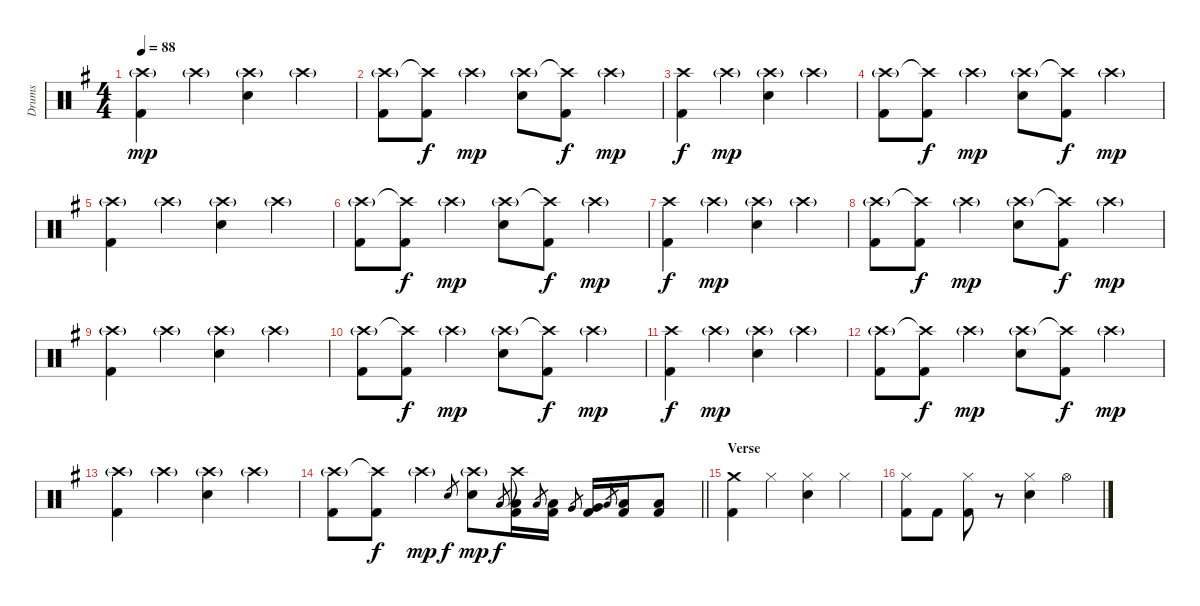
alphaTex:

\track ("Drums" "Drums") {instrument percussion}
\staff {score}
\articulation defaults
\ts (4 4)
\tempo 88
\clef neutral
\ks g
("Crash high (hit)"{g} "Kick (hit) 2").4{dy mp} "Crash high (hit)"{g}.4 ("Crash high (hit)"{g} "Electric Snare (hit)").4 "Crash high (hit)"{g}.4 |
("Crash high (hit)"{g} "Kick (hit) 2").8 ("Crash high (hit)"{t} "Kick (hit) 2").8{dy f} "Crash high (hit)"{g}.4{dy mp} ("Crash high (hit)"{g} "Electric Snare (hit)").8 ("Crash high (hit)"{t} "Kick (hit) 2").8{dy f} "Crash high (hit)"{g}.4{dy mp} |
("Crash high (hit)" "Kick (hit) 2").4{dy f} "Crash high (hit)"{g}.4{dy mp} ("Crash high (hit)"{g} "Electric Snare (hit)").4 "Crash high (hit)"{g}.4 |
("Crash high (hit)"{g} "Kick (hit) 2").8 ("Crash high (hit)"{t} "Kick (hit) 2").8{dy f} "Crash high (hit)"{g}.4{dy mp} ("Crash high (hit)"{g} "Electric Snare (hit)").8 ("Crash high (hit)"{t} "Kick (hit) 2").8{dy f} "Crash high (hit)"{g}.4{dy mp} |
("Crash high (hit)"{g} "Kick (hit) 2").4 "Crash high (hit)"{g}.4 ("Crash high (hit)"{g} "Electric Snare (hit)").4 "Crash high (hit)"{g}.4 |
("Crash high (hit)"{g} "Kick (hit) 2").8 ("Crash high (hit)"{t} "Kick (hit) 2").8{dy f} "Crash high (hit)"{g}.4{dy mp} ("Crash high (hit)"{g} "Electric Snare (hit)").8 ("Crash high (hit)"{t} "Kick (hit) 2").8{dy f} "Crash high (hit)"{g}.4{dy mp} |
("Crash high (hit)" "Kick (hit) 2").4{dy f} "Crash high (hit)"{g}.4{dy mp} ("Crash high (hit)"{g} "Electric Snare (hit)").4 "Crash high (hit)"{g}.4 |
("Crash high (hit)"{g} "Kick (hit) 2").8 ("Crash high (hit)"{t} "Kick (hit) 2").8{dy f} "Crash high (hit)"{g}.4{dy mp} ("Crash high (hit)"{g} "Electric Snare (hit)").8 ("Crash high (hit)"{t} "Kick (hit) 2").8{dy f} "Crash high (hit)"{g}.4{dy mp} |
("Crash high (hit)"{g} "Kick (hit) 2").4 "Crash high (hit)"{g}.4 ("Crash high (hit)"{g} "Electric Snare (hit)").4 "Crash high (hit)"{g}.4 |
("Crash high (hit)"{g} "Kick (hit) 2").8 ("Crash high (hit)"{t} "Kick (hit) 2").8{dy f} "Crash high (hit)"{g}.4{dy mp} ("Crash high (hit)"{g} "Electric Snare (hit)").8 ("Crash high (hit)"{t} "Kick (hit) 2").8{dy f} "Crash high (hit)"{g}.4{dy mp} |
("Crash high (hit)" "Kick (hit) 2").4{dy f} "Crash high (hit)"{g}.4{dy mp} ("Crash high (hit)"{g} "Electric Snare (hit)").4 "Crash high (hit)"{g}.4 |
("Crash high (hit)"{g} "Kick (hit) 2").8 ("Crash high (hit)"{t} "Kick (hit) 2").8{dy f} "Crash high (hit)"{g}.4{dy mp} ("Crash high (hit)"{g} "Electric Snare (hit)").8 ("Crash high (hit)"{t} "Kick (hit) 2").8{dy f} "Crash high (hit)"{g}.4{dy mp} |
("Crash high (hit)"{g} "Kick (hit) 2").4 "Crash high (hit)"{g}.4 ("Crash high (hit)"{g} "Electric Snare (hit)").4 "Crash high (hit)"{g}.4 |
\barLineRight lightlight
("Crash high (hit)"{g} "Kick (hit) 2").8 ("Crash high (hit)"{t} "Kick (hit) 2").8{dy f} "Crash high (hit)"{g}.4{dy mp} "Electric Snare (hit)".8{gr dy f} ("Crash high (hit)"{g} "Electric Snare (hit)").8{dy mp} "Low Floor Tom (hit)".8{gr dy f} ("Crash high (hit)"{t} "Low Floor Tom (hit)" "Kick (hit) 2").16 "Low Tom (hit)".8{gr} ("Low Tom (hit)" "Kick (hit) 2").16 "Very Low Tom (hit)".8{gr} ("Very Low Tom (hit)" "Kick (hit) 2").16 "Low Floor Tom (hit)".8{gr} ("Low Floor Tom (hit)" "Kick (hit) 2").16 ("Low Floor Tom (hit)" "Kick (hit) 2").8 |
\section ("" "Verse")
("Crash medium (hit)" "Kick (hit) 2").4 "Hi-Hat (closed)".4 ("Hi-Hat (closed)" "Electric Snare (hit)").4 "Hi-Hat (closed)".4 |
("Hi-Hat (closed)" "Kick (hit) 2").8 "Kick (hit) 2".8 ("Hi-Hat (closed)" "Kick (hit) 2").8 r.8 ("Hi-Hat (closed)" "Electric Snare (hit)").4 "Hi-Hat (open)".4
